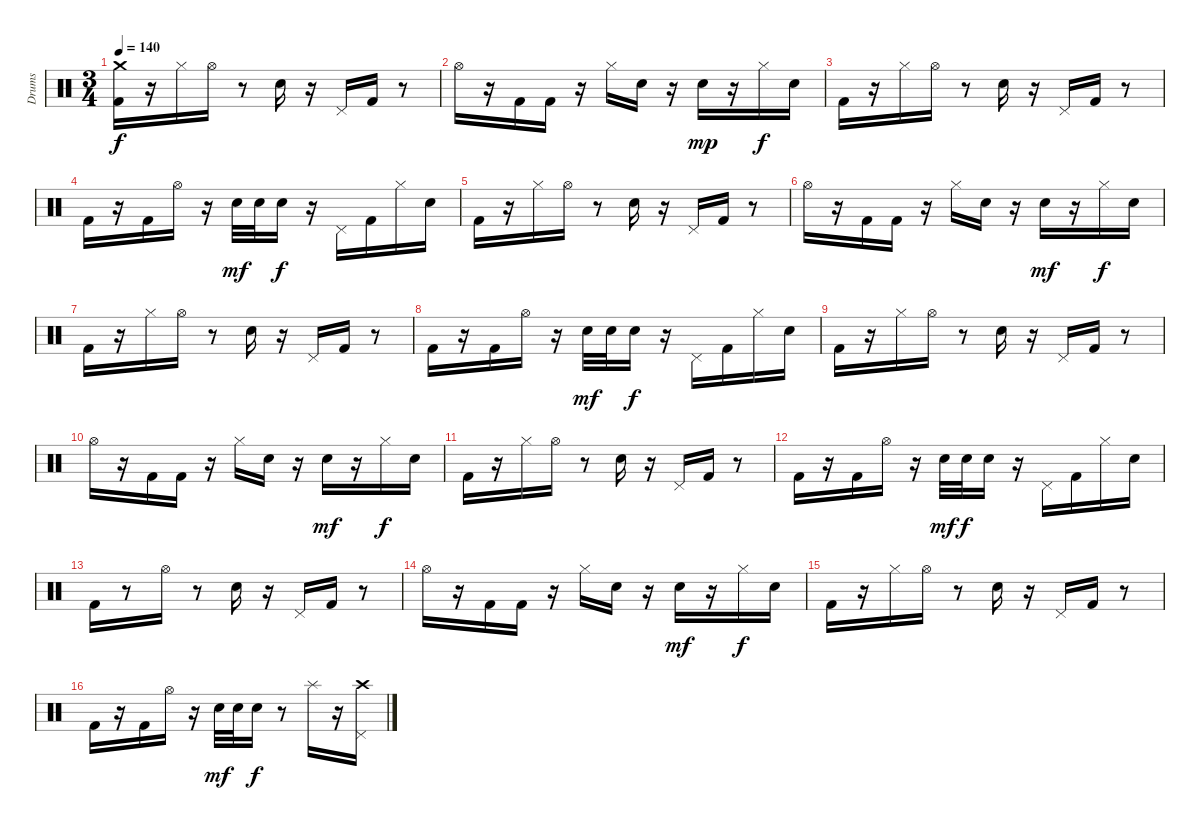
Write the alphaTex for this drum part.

\track ("Drums" "Drums") {instrument percussion}
\staff {score}
\articulation defaults
\ts (3 4)
\tempo 140
\clef neutral
\ks c
("Crash medium (hit)" "Kick (hit) 2").16{dy f} r.16 "Hi-Hat (closed)".16 "Hi-Hat (open)".16 r.8 "Electric Snare (hit)".16 r.16 "Pedal Hi-Hat (hit)".16 "Kick (hit) 2".16 r.8 |
"Hi-Hat (open)".16 r.16 "Kick (hit) 2".16 "Kick (hit) 2".16 r.16 "Hi-Hat (closed)".16 "Electric Snare (hit)".16 r.16 "Electric Snare (hit)".16{dy mp} r.16 "Hi-Hat (closed)".16{dy f} "Electric Snare (hit)".16 |
"Kick (hit) 2".16 r.16 "Hi-Hat (closed)".16 "Hi-Hat (open)".16 r.8 "Electric Snare (hit)".16 r.16 "Pedal Hi-Hat (hit)".16 "Kick (hit) 2".16 r.8 |
"Kick (hit) 2".16 r.16 "Kick (hit) 2".16 "Hi-Hat (open)".16 r.16 "Electric Snare (hit)".32{dy mf} "Electric Snare (hit)".32 "Electric Snare (hit)".16{dy f} r.16 "Pedal Hi-Hat (hit)".16 "Kick (hit) 2".16 "Hi-Hat (closed)".16 "Electric Snare (hit)".16 |
"Kick (hit) 2".16 r.16 "Hi-Hat (closed)".16 "Hi-Hat (open)".16 r.8 "Electric Snare (hit)".16 r.16 "Pedal Hi-Hat (hit)".16 "Kick (hit) 2".16 r.8 |
"Hi-Hat (open)".16 r.16 "Kick (hit) 2".16 "Kick (hit) 2".16 r.16 "Hi-Hat (closed)".16 "Electric Snare (hit)".16 r.16 "Electric Snare (hit)".16{dy mf} r.16 "Hi-Hat (closed)".16{dy f} "Electric Snare (hit)".16 |
"Kick (hit) 2".16 r.16 "Hi-Hat (closed)".16 "Hi-Hat (open)".16 r.8 "Electric Snare (hit)".16 r.16 "Pedal Hi-Hat (hit)".16 "Kick (hit) 2".16 r.8 |
"Kick (hit) 2".16 r.16 "Kick (hit) 2".16 "Hi-Hat (open)".16 r.16 "Electric Snare (hit)".32{dy mf} "Electric Snare (hit)".32 "Electric Snare (hit)".16{dy f} r.16 "Pedal Hi-Hat (hit)".16 "Kick (hit) 2".16 "Hi-Hat (closed)".16 "Electric Snare (hit)".16 |
"Kick (hit) 2".16 r.16 "Hi-Hat (closed)".16 "Hi-Hat (open)".16 r.8 "Electric Snare (hit)".16 r.16 "Pedal Hi-Hat (hit)".16 "Kick (hit) 2".16 r.8 |
"Hi-Hat (open)".16 r.16 "Kick (hit) 2".16 "Kick (hit) 2".16 r.16 "Hi-Hat (closed)".16 "Electric Snare (hit)".16 r.16 "Electric Snare (hit)".16{dy mf} r.16 "Hi-Hat (closed)".16{dy f} "Electric Snare (hit)".16 |
"Kick (hit) 2".16 r.16 "Hi-Hat (closed)".16 "Hi-Hat (open)".16 r.8 "Electric Snare (hit)".16 r.16 "Pedal Hi-Hat (hit)".16 "Kick (hit) 2".16 r.8 |
"Kick (hit) 2".16 r.16 "Kick (hit) 2".16 "Hi-Hat (open)".16 r.16 "Electric Snare (hit)".32{dy mf} "Electric Snare (hit)".32{dy f} "Electric Snare (hit)".16 r.16 "Pedal Hi-Hat (hit)".16 "Kick (hit) 2".16 "Hi-Hat (closed)".16 "Electric Snare (hit)".16 |
"Kick (hit) 2".16 r.8 "Hi-Hat (open)".16 r.8 "Electric Snare (hit)".16 r.16 "Pedal Hi-Hat (hit)".16 "Kick (hit) 2".16 r.8 |
"Hi-Hat (open)".16 r.16 "Kick (hit) 2".16 "Kick (hit) 2".16 r.16 "Hi-Hat (closed)".16 "Electric Snare (hit)".16 r.16 "Electric Snare (hit)".16{dy mf} r.16 "Hi-Hat (closed)".16{dy f} "Electric Snare (hit)".16 |
"Kick (hit) 2".16 r.16 "Hi-Hat (closed)".16 "Hi-Hat (open)".16 r.8 "Electric Snare (hit)".16 r.16 "Pedal Hi-Hat (hit)".16 "Kick (hit) 2".16 r.8 |
"Kick (hit) 2".16 r.16 "Kick (hit) 2".16 "Hi-Hat (open)".16 r.16 "Electric Snare (hit)".32{dy mf} "Electric Snare (hit)".32 "Electric Snare (hit)".16{dy f} r.8 "Splash (hit)".16 r.16 ("Pedal Hi-Hat (hit)" "Crash high (hit)").16
